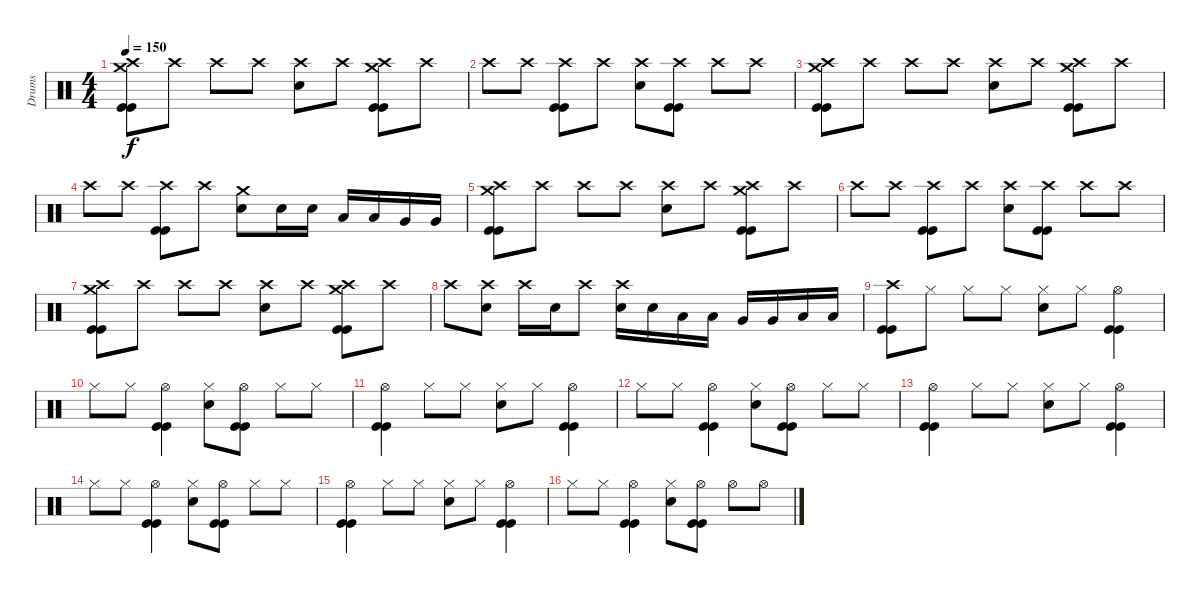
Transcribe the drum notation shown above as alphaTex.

\track ("Drums" "Drums") {instrument percussion}
\staff {score}
\articulation defaults
\ts (4 4)
\tempo 150
\clef neutral
\ks c
("Crash high (hit)" "Crash medium (hit)" "Kick (hit)" "Kick (hit)").8{dy f} "Crash high (hit)".8 "Crash high (hit)".8 "Crash high (hit)".8 ("Crash high (hit)" "Electric Snare (hit)").8 "Crash high (hit)".8 ("Crash high (hit)" "Crash medium (hit)" "Kick (hit)" "Kick (hit)").8 "Crash high (hit)".8 |
"Crash high (hit)".8 "Crash high (hit)".8 ("Crash high (hit)" "Kick (hit)" "Kick (hit)").8 "Crash high (hit)".8 ("Crash high (hit)" "Electric Snare (hit)").8 ("Crash high (hit)" "Kick (hit)" "Kick (hit)").8 "Crash high (hit)".8 "Crash high (hit)".8 |
("Crash high (hit)" "Crash medium (hit)" "Kick (hit)" "Kick (hit)").8 "Crash high (hit)".8 "Crash high (hit)".8 "Crash high (hit)".8 ("Crash high (hit)" "Electric Snare (hit)").8 "Crash high (hit)".8 ("Crash high (hit)" "Crash medium (hit)" "Kick (hit)" "Kick (hit)").8 "Crash high (hit)".8 |
"Crash high (hit)".8 "Crash high (hit)".8 ("Crash high (hit)" "Kick (hit)" "Kick (hit)").8 "Crash high (hit)".8 ("Crash medium (hit)" "Electric Snare (hit)").8 "Electric Snare (hit)".16 "Electric Snare (hit)".16 "Low Tom (hit)".16 "Low Tom (hit)".16 "Very Low Tom (hit)".16 "Very Low Tom (hit)".16 |
("Crash high (hit)" "Crash medium (hit)" "Kick (hit)" "Kick (hit)").8 "Crash high (hit)".8 "Crash high (hit)".8 "Crash high (hit)".8 ("Crash high (hit)" "Electric Snare (hit)").8 "Crash high (hit)".8 ("Crash high (hit)" "Crash medium (hit)" "Kick (hit)" "Kick (hit)").8 "Crash high (hit)".8 |
"Crash high (hit)".8 "Crash high (hit)".8 ("Crash high (hit)" "Kick (hit)" "Kick (hit)").8 "Crash high (hit)".8 ("Crash high (hit)" "Electric Snare (hit)").8 ("Crash high (hit)" "Kick (hit)" "Kick (hit)").8 "Crash high (hit)".8 "Crash high (hit)".8 |
("Crash high (hit)" "Crash medium (hit)" "Kick (hit)" "Kick (hit)").8 "Crash high (hit)".8 "Crash high (hit)".8 "Crash high (hit)".8 ("Crash high (hit)" "Electric Snare (hit)").8 "Crash high (hit)".8 ("Crash high (hit)" "Crash medium (hit)" "Kick (hit)" "Kick (hit)").8 "Crash high (hit)".8 |
"Crash high (hit)".8 ("Crash high (hit)" "Electric Snare (hit)").8 "Crash high (hit)".16 "Electric Snare (hit)".16 "Crash high (hit)".8 ("Crash high (hit)" "Electric Snare (hit)").16 "Electric Snare (hit)".16 "Low Tom (hit)".16 "Low Tom (hit)".16 "Very Low Tom (hit)".16 "Very Low Tom (hit)".16 "Low Floor Tom (hit)".16 "Low Floor Tom (hit)".16 |
("Crash high (hit)" "Kick (hit)" "Kick (hit)").8 "Hi-Hat (closed)".8 "Hi-Hat (closed)".8 "Hi-Hat (closed)".8 ("Hi-Hat (closed)" "Electric Snare (hit)").8 "Hi-Hat (closed)".8 ("Hi-Hat (open)" "Kick (hit)" "Kick (hit)").4 |
"Hi-Hat (closed)".8 "Hi-Hat (closed)".8 ("Hi-Hat (open)" "Kick (hit)" "Kick (hit)").4 ("Hi-Hat (closed)" "Electric Snare (hit)").8 ("Hi-Hat (open)" "Kick (hit)" "Kick (hit)").8 "Hi-Hat (closed)".8 "Hi-Hat (closed)".8 |
("Hi-Hat (open)" "Kick (hit)" "Kick (hit)").4 "Hi-Hat (closed)".8 "Hi-Hat (closed)".8 ("Hi-Hat (closed)" "Electric Snare (hit)").8 "Hi-Hat (closed)".8 ("Hi-Hat (open)" "Kick (hit)" "Kick (hit)").4 |
"Hi-Hat (closed)".8 "Hi-Hat (closed)".8 ("Hi-Hat (open)" "Kick (hit)" "Kick (hit)").4 ("Hi-Hat (closed)" "Electric Snare (hit)").8 ("Hi-Hat (open)" "Kick (hit)" "Kick (hit)").8 "Hi-Hat (closed)".8 "Hi-Hat (closed)".8 |
("Hi-Hat (open)" "Kick (hit)" "Kick (hit)").4 "Hi-Hat (closed)".8 "Hi-Hat (closed)".8 ("Hi-Hat (closed)" "Electric Snare (hit)").8 "Hi-Hat (closed)".8 ("Hi-Hat (open)" "Kick (hit)" "Kick (hit)").4 |
"Hi-Hat (closed)".8 "Hi-Hat (closed)".8 ("Hi-Hat (open)" "Kick (hit)" "Kick (hit)").4 ("Hi-Hat (closed)" "Electric Snare (hit)").8 ("Hi-Hat (open)" "Kick (hit)" "Kick (hit)").8 "Hi-Hat (closed)".8 "Hi-Hat (closed)".8 |
("Hi-Hat (open)" "Kick (hit)" "Kick (hit)").4 "Hi-Hat (closed)".8 "Hi-Hat (closed)".8 ("Hi-Hat (closed)" "Electric Snare (hit)").8 "Hi-Hat (closed)".8 ("Hi-Hat (open)" "Kick (hit)" "Kick (hit)").4 |
"Hi-Hat (closed)".8 "Hi-Hat (closed)".8 ("Hi-Hat (open)" "Kick (hit)" "Kick (hit)").4 ("Hi-Hat (closed)" "Electric Snare (hit)").8 ("Hi-Hat (open)" "Kick (hit)" "Kick (hit)").8 "Hi-Hat (open)".8 "Hi-Hat (open)".8
